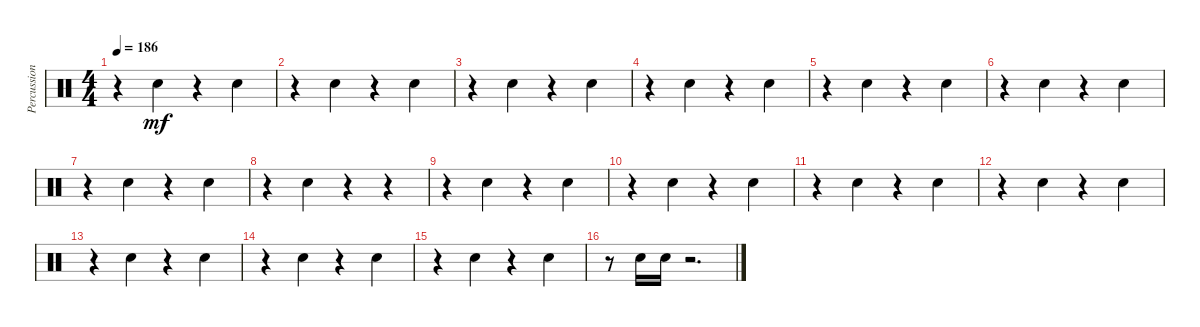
\track ("Percussion" "Percussion") {instrument percussion}
\staff {score}
\articulation defaults
\ts (4 4)
\tempo 186
\clef neutral
\ks c
r.4{dy mf} "Snare (hit) 2".4 r.4 "Snare (hit) 2".4 |
r.4 "Snare (hit) 2".4 r.4 "Snare (hit) 2".4 |
r.4 "Snare (hit) 2".4 r.4 "Snare (hit) 2".4 |
r.4 "Snare (hit) 2".4 r.4 "Snare (hit) 2".4 |
r.4 "Snare (hit) 2".4 r.4 "Snare (hit) 2".4 |
r.4 "Snare (hit) 2".4 r.4 "Snare (hit) 2".4 |
r.4 "Snare (hit) 2".4 r.4 "Snare (hit) 2".4 |
r.4 "Snare (hit) 2".4 r.4 r.4 |
r.4 "Snare (hit) 2".4 r.4 "Snare (hit) 2".4 |
r.4 "Snare (hit) 2".4 r.4 "Snare (hit) 2".4 |
r.4 "Snare (hit) 2".4 r.4 "Snare (hit) 2".4 |
r.4 "Snare (hit) 2".4 r.4 "Snare (hit) 2".4 |
r.4 "Snare (hit) 2".4 r.4 "Snare (hit) 2".4 |
r.4 "Snare (hit) 2".4 r.4 "Snare (hit) 2".4 |
r.4 "Snare (hit) 2".4 r.4 "Snare (hit) 2".4 |
r.8 "Snare (hit) 2".16 "Snare (hit) 2".16 r.2{d}
